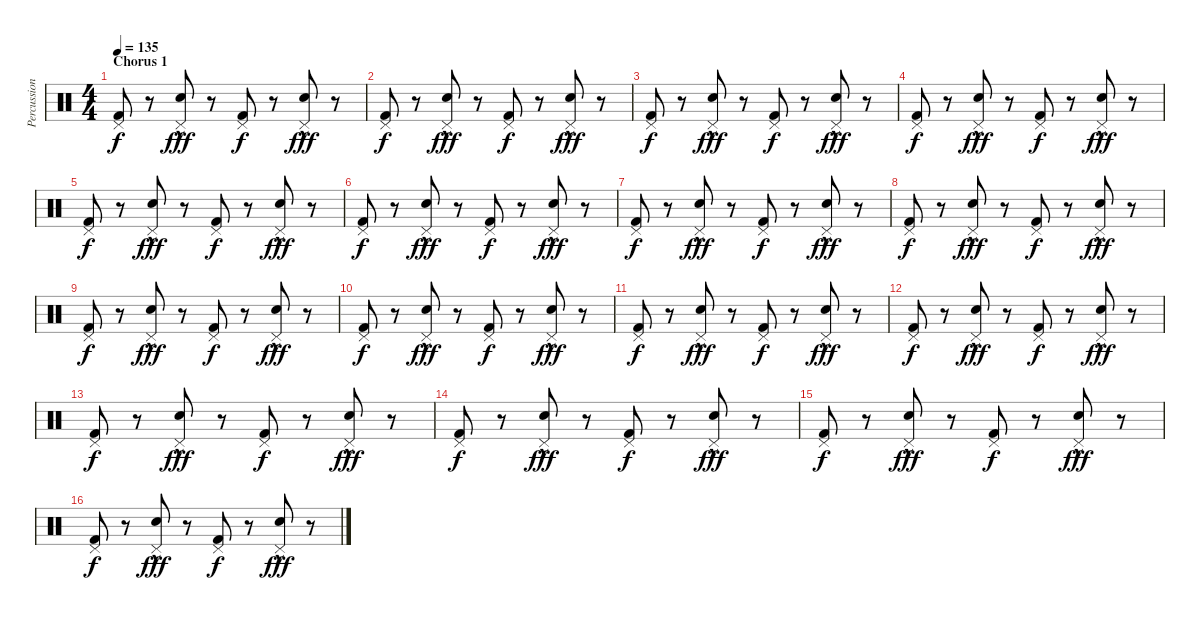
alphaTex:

\track ("Percussion" "Percussion") {instrument percussion}
\staff {score}
\articulation defaults
\ts (4 4)
\section ("" "Chorus 1")
\tempo 135
\clef neutral
\ks c
("Kick (hit) 2" "Pedal Hi-Hat (hit)").8{dy f} r.8 ("Snare (hit) 2"{hac} "Pedal Hi-Hat (hit)").8{dy fff} r.8 ("Kick (hit) 2" "Pedal Hi-Hat (hit)").8{dy f} r.8 ("Snare (hit) 2"{hac} "Pedal Hi-Hat (hit)").8{dy fff} r.8 |
("Kick (hit) 2" "Pedal Hi-Hat (hit)").8{dy f} r.8 ("Snare (hit) 2"{hac} "Pedal Hi-Hat (hit)").8{dy fff} r.8 ("Kick (hit) 2" "Pedal Hi-Hat (hit)").8{dy f} r.8 ("Snare (hit) 2"{hac} "Pedal Hi-Hat (hit)").8{dy fff} r.8 |
("Kick (hit) 2" "Pedal Hi-Hat (hit)").8{dy f} r.8 ("Snare (hit) 2"{hac} "Pedal Hi-Hat (hit)").8{dy fff} r.8 ("Kick (hit) 2" "Pedal Hi-Hat (hit)").8{dy f} r.8 ("Snare (hit) 2"{hac} "Pedal Hi-Hat (hit)").8{dy fff} r.8 |
("Kick (hit) 2" "Pedal Hi-Hat (hit)").8{dy f} r.8 ("Snare (hit) 2"{hac} "Pedal Hi-Hat (hit)").8{dy fff} r.8 ("Kick (hit) 2" "Pedal Hi-Hat (hit)").8{dy f} r.8 ("Snare (hit) 2"{hac} "Pedal Hi-Hat (hit)").8{dy fff} r.8 |
("Kick (hit) 2" "Pedal Hi-Hat (hit)").8{dy f} r.8 ("Snare (hit) 2"{hac} "Pedal Hi-Hat (hit)").8{dy fff} r.8 ("Kick (hit) 2" "Pedal Hi-Hat (hit)").8{dy f} r.8 ("Snare (hit) 2"{hac} "Pedal Hi-Hat (hit)").8{dy fff} r.8 |
("Kick (hit) 2" "Pedal Hi-Hat (hit)").8{dy f} r.8 ("Snare (hit) 2"{hac} "Pedal Hi-Hat (hit)").8{dy fff} r.8 ("Kick (hit) 2" "Pedal Hi-Hat (hit)").8{dy f} r.8 ("Snare (hit) 2"{hac} "Pedal Hi-Hat (hit)").8{dy fff} r.8 |
("Kick (hit) 2" "Pedal Hi-Hat (hit)").8{dy f} r.8 ("Snare (hit) 2"{hac} "Pedal Hi-Hat (hit)").8{dy fff} r.8 ("Kick (hit) 2" "Pedal Hi-Hat (hit)").8{dy f} r.8 ("Snare (hit) 2"{hac} "Pedal Hi-Hat (hit)").8{dy fff} r.8 |
("Kick (hit) 2" "Pedal Hi-Hat (hit)").8{dy f} r.8 ("Snare (hit) 2"{hac} "Pedal Hi-Hat (hit)").8{dy fff} r.8 ("Kick (hit) 2" "Pedal Hi-Hat (hit)").8{dy f} r.8 ("Snare (hit) 2"{hac} "Pedal Hi-Hat (hit)").8{dy fff} r.8 |
("Kick (hit) 2" "Pedal Hi-Hat (hit)").8{dy f} r.8 ("Snare (hit) 2"{hac} "Pedal Hi-Hat (hit)").8{dy fff} r.8 ("Kick (hit) 2" "Pedal Hi-Hat (hit)").8{dy f} r.8 ("Snare (hit) 2"{hac} "Pedal Hi-Hat (hit)").8{dy fff} r.8 |
("Kick (hit) 2" "Pedal Hi-Hat (hit)").8{dy f} r.8 ("Snare (hit) 2"{hac} "Pedal Hi-Hat (hit)").8{dy fff} r.8 ("Kick (hit) 2" "Pedal Hi-Hat (hit)").8{dy f} r.8 ("Snare (hit) 2"{hac} "Pedal Hi-Hat (hit)").8{dy fff} r.8 |
("Kick (hit) 2" "Pedal Hi-Hat (hit)").8{dy f} r.8 ("Snare (hit) 2"{hac} "Pedal Hi-Hat (hit)").8{dy fff} r.8 ("Kick (hit) 2" "Pedal Hi-Hat (hit)").8{dy f} r.8 ("Snare (hit) 2"{hac} "Pedal Hi-Hat (hit)").8{dy fff} r.8 |
("Kick (hit) 2" "Pedal Hi-Hat (hit)").8{dy f} r.8 ("Snare (hit) 2"{hac} "Pedal Hi-Hat (hit)").8{dy fff} r.8 ("Kick (hit) 2" "Pedal Hi-Hat (hit)").8{dy f} r.8 ("Snare (hit) 2"{hac} "Pedal Hi-Hat (hit)").8{dy fff} r.8 |
("Kick (hit) 2" "Pedal Hi-Hat (hit)").8{dy f} r.8 ("Snare (hit) 2"{hac} "Pedal Hi-Hat (hit)").8{dy fff} r.8 ("Kick (hit) 2" "Pedal Hi-Hat (hit)").8{dy f} r.8 ("Snare (hit) 2"{hac} "Pedal Hi-Hat (hit)").8{dy fff} r.8 |
("Kick (hit) 2" "Pedal Hi-Hat (hit)").8{dy f} r.8 ("Snare (hit) 2"{hac} "Pedal Hi-Hat (hit)").8{dy fff} r.8 ("Kick (hit) 2" "Pedal Hi-Hat (hit)").8{dy f} r.8 ("Snare (hit) 2"{hac} "Pedal Hi-Hat (hit)").8{dy fff} r.8 |
("Kick (hit) 2" "Pedal Hi-Hat (hit)").8{dy f} r.8 ("Snare (hit) 2"{hac} "Pedal Hi-Hat (hit)").8{dy fff} r.8 ("Kick (hit) 2" "Pedal Hi-Hat (hit)").8{dy f} r.8 ("Snare (hit) 2"{hac} "Pedal Hi-Hat (hit)").8{dy fff} r.8 |
("Kick (hit) 2" "Pedal Hi-Hat (hit)").8{dy f} r.8 ("Snare (hit) 2"{hac} "Pedal Hi-Hat (hit)").8{dy fff} r.8 ("Kick (hit) 2" "Pedal Hi-Hat (hit)").8{dy f} r.8 ("Snare (hit) 2"{hac} "Pedal Hi-Hat (hit)").8{dy fff} r.8
